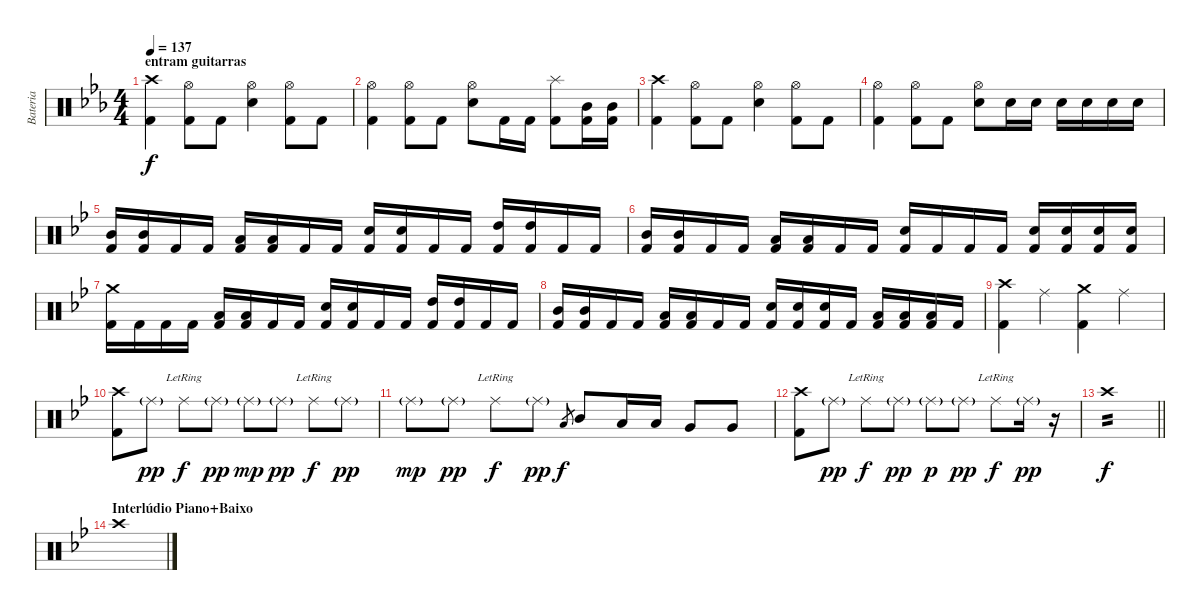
\track ("Bateria" "Bateria") {instrument percussion}
\staff {score}
\articulation defaults
\ts (4 4)
\section ("" "entram guitarras")
\tempo 137
\clef neutral
\ks cminor
("Crash high (hit)" "Kick (hit) 2").4{dy f} ("Hi-Hat (open)" "Kick (hit) 2").8 "Kick (hit) 2".8 ("Hi-Hat (open)" "Electric Snare (hit)").4 ("Hi-Hat (open)" "Kick (hit) 2").8 "Kick (hit) 2".8 |
("Hi-Hat (open)" "Kick (hit) 2").4 ("Hi-Hat (open)" "Kick (hit) 2").8 "Kick (hit) 2".8 ("Hi-Hat (open)" "Electric Snare (hit)").8 "Kick (hit) 2".16 "Kick (hit) 2".16 ("Splash (hit)" "Kick (hit) 2").8 ("Mid Tom (hit)" "Kick (hit) 2").16 ("Mid Tom (hit)" "Kick (hit) 2").16 |
("Crash high (hit)" "Kick (hit) 2").4 ("Hi-Hat (open)" "Kick (hit) 2").8 "Kick (hit) 2".8 ("Hi-Hat (open)" "Electric Snare (hit)").4 ("Hi-Hat (open)" "Kick (hit) 2").8 "Kick (hit) 2".8 |
("Hi-Hat (open)" "Kick (hit) 2").4 ("Hi-Hat (open)" "Kick (hit) 2").8 "Kick (hit) 2".8 ("Hi-Hat (open)" "Electric Snare (hit)").8 "Electric Snare (hit)".16 "Electric Snare (hit)".16 "Electric Snare (hit)".16 "Electric Snare (hit)".16 "Electric Snare (hit)".16 "Electric Snare (hit)".16 |
\ks gminor
("Mid Tom (hit)" "Kick (hit) 2").16 ("Mid Tom (hit)" "Kick (hit) 2").16 "Kick (hit) 2".16 "Kick (hit) 2".16 ("Low Tom (hit)" "Kick (hit) 2").16 ("Low Tom (hit)" "Kick (hit) 2").16 "Kick (hit) 2".16 "Kick (hit) 2".16 ("Electric Snare (hit)" "Kick (hit) 2").16 ("Electric Snare (hit)" "Kick (hit) 2").16 "Kick (hit) 2".16 "Kick (hit) 2".16 ("High Tom (hit)" "Kick (hit) 2").16 ("High Tom (hit)" "Kick (hit) 2").16 "Kick (hit) 2".16 "Kick (hit) 2".16 |
("Mid Tom (hit)" "Kick (hit) 2").16 ("Mid Tom (hit)" "Kick (hit) 2").16 "Kick (hit) 2".16 "Kick (hit) 2".16 ("Low Tom (hit)" "Kick (hit) 2").16 ("Low Tom (hit)" "Kick (hit) 2").16 "Kick (hit) 2".16 "Kick (hit) 2".16 ("Electric Snare (hit)" "Kick (hit) 2").16 "Kick (hit) 2".16 "Kick (hit) 2".16 "Kick (hit) 2".16 ("Electric Snare (hit)" "Kick (hit) 2").16 ("Electric Snare (hit)" "Kick (hit) 2").16 ("Electric Snare (hit)" "Kick (hit) 2").16 ("Electric Snare (hit)" "Kick (hit) 2").16 |
("Crash medium (hit)" "Kick (hit) 2").16 "Kick (hit) 2".16 "Kick (hit) 2".16 "Kick (hit) 2".16 ("Low Tom (hit)" "Kick (hit) 2").16 ("Low Tom (hit)" "Kick (hit) 2").16 "Kick (hit) 2".16 "Kick (hit) 2".16 ("Electric Snare (hit)" "Kick (hit) 2").16 ("Electric Snare (hit)" "Kick (hit) 2").16 "Kick (hit) 2".16 "Kick (hit) 2".16 ("High Tom (hit)" "Kick (hit) 2").16 ("High Tom (hit)" "Kick (hit) 2").16 "Kick (hit) 2".16 "Kick (hit) 2".16 |
("Mid Tom (hit)" "Kick (hit) 2").16 ("Mid Tom (hit)" "Kick (hit) 2").16 "Kick (hit) 2".16 "Kick (hit) 2".16 ("Low Tom (hit)" "Kick (hit) 2").16 ("Low Tom (hit)" "Kick (hit) 2").16 "Kick (hit) 2".16 "Kick (hit) 2".16 ("Electric Snare (hit)" "Kick (hit) 2").16 ("Electric Snare (hit)" "Kick (hit) 2").16 ("Electric Snare (hit)" "Kick (hit) 2").16 "Kick (hit) 2".16 ("Low Tom (hit)" "Kick (hit) 2").16 ("Low Tom (hit)" "Kick (hit) 2").16 ("Low Tom (hit)" "Kick (hit) 2").16 "Kick (hit) 2".16 |
("Crash high (hit)" "Kick (hit) 2").4 "Ride (middle)".4 ("Crash medium (hit)" "Kick (hit) 2").4 "Ride (middle)".4 |
("Crash high (hit)" "Kick (hit) 2").8 "Ride (middle)"{g}.8{dy pp} "Ride (middle)"{lr}.8{dy f} "Ride (middle)"{g}.8{dy pp} "Ride (middle)"{g}.8{dy mp} "Ride (middle)"{g}.8{dy pp} "Ride (middle)"{lr}.8{dy f} "Ride (middle)"{g}.8{dy pp} |
"Ride (middle)"{g}.8{dy mp} "Ride (middle)"{g}.8{dy pp} "Ride (middle)"{lr}.8{dy f} "Ride (middle)"{g}.8{dy pp} "Low Tom (hit)".8{gr dy f} "Mid Tom (hit)".8 "Low Tom (hit)".16 "Low Tom (hit)".16 "Very Low Tom (hit)".8 "Very Low Tom (hit)".8 |
("Crash high (hit)" "Kick (hit) 2").8 "Ride (middle)"{g}.8{dy pp} "Ride (middle)"{lr}.8{dy f} "Ride (middle)"{g}.8{dy pp} "Ride (middle)"{g}.8{dy p} "Ride (middle)"{g}.8{dy pp} "Ride (middle)"{lr}.8{dy f} "Ride (middle)"{g}.16{dy pp} r.16{volume 0} |
\barLineRight lightlight "Crash high (hit)".1{tp 2 dy f volume 15}
|
\section ("" "Interlúdio Piano+Baixo")
"Crash high (hit)".1
